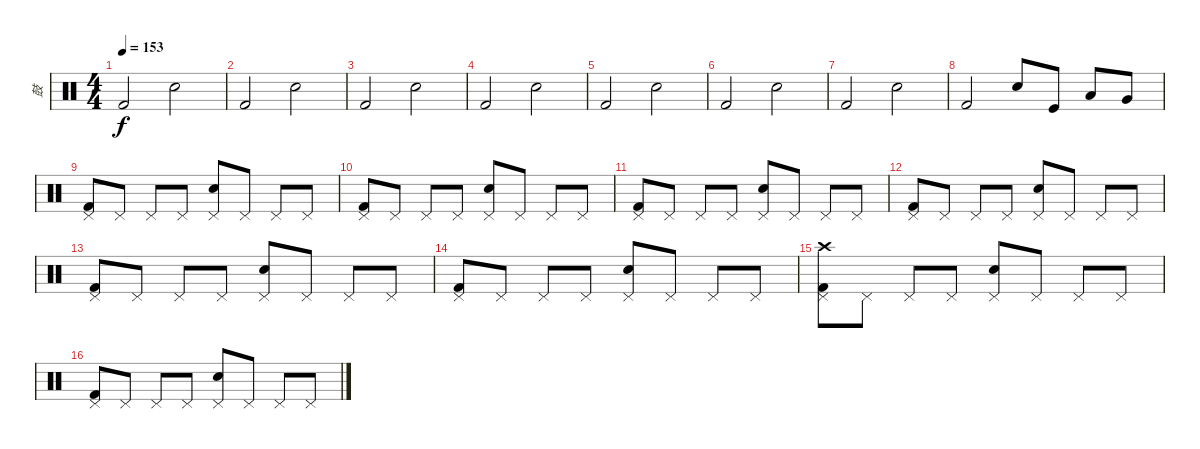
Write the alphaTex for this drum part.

\track ("鼓" "鼓") {instrument percussion}
\staff {score}
\articulation defaults
\ts (4 4)
\tempo 153
\clef neutral
\ks c "Kick (hit) 2".2{dy f} "Electric Snare (hit)".2
|
"Kick (hit) 2".2 "Electric Snare (hit)".2 |
"Kick (hit) 2".2 "Electric Snare (hit)".2 |
"Kick (hit) 2".2 "Electric Snare (hit)".2 |
"Kick (hit) 2".2 "Electric Snare (hit)".2 |
"Kick (hit) 2".2 "Electric Snare (hit)".2 |
"Kick (hit) 2".2 "Electric Snare (hit)".2 |
"Kick (hit) 2".2 "Snare (hit) 2".8 "Kick (hit)".8 "Low Tom (hit)".8 "Very Low Tom (hit)".8 |
("Pedal Hi-Hat (hit)" "Kick (hit) 2").8 "Pedal Hi-Hat (hit)".8 "Pedal Hi-Hat (hit)".8 "Pedal Hi-Hat (hit)".8 ("Pedal Hi-Hat (hit)" "Electric Snare (hit)").8 "Pedal Hi-Hat (hit)".8 "Pedal Hi-Hat (hit)".8 "Pedal Hi-Hat (hit)".8 |
("Pedal Hi-Hat (hit)" "Kick (hit) 2").8 "Pedal Hi-Hat (hit)".8 "Pedal Hi-Hat (hit)".8 "Pedal Hi-Hat (hit)".8 ("Pedal Hi-Hat (hit)" "Electric Snare (hit)").8 "Pedal Hi-Hat (hit)".8 "Pedal Hi-Hat (hit)".8 "Pedal Hi-Hat (hit)".8 |
("Pedal Hi-Hat (hit)" "Kick (hit) 2").8 "Pedal Hi-Hat (hit)".8 "Pedal Hi-Hat (hit)".8 "Pedal Hi-Hat (hit)".8 ("Pedal Hi-Hat (hit)" "Electric Snare (hit)").8 "Pedal Hi-Hat (hit)".8 "Pedal Hi-Hat (hit)".8 "Pedal Hi-Hat (hit)".8 |
("Pedal Hi-Hat (hit)" "Kick (hit) 2").8 "Pedal Hi-Hat (hit)".8 "Pedal Hi-Hat (hit)".8 "Pedal Hi-Hat (hit)".8 ("Pedal Hi-Hat (hit)" "Electric Snare (hit)").8 "Pedal Hi-Hat (hit)".8 "Pedal Hi-Hat (hit)".8 "Pedal Hi-Hat (hit)".8 |
("Pedal Hi-Hat (hit)" "Kick (hit) 2").8 "Pedal Hi-Hat (hit)".8 "Pedal Hi-Hat (hit)".8 "Pedal Hi-Hat (hit)".8 ("Pedal Hi-Hat (hit)" "Electric Snare (hit)").8 "Pedal Hi-Hat (hit)".8 "Pedal Hi-Hat (hit)".8 "Pedal Hi-Hat (hit)".8 |
("Pedal Hi-Hat (hit)" "Kick (hit) 2").8 "Pedal Hi-Hat (hit)".8 "Pedal Hi-Hat (hit)".8 "Pedal Hi-Hat (hit)".8 ("Pedal Hi-Hat (hit)" "Electric Snare (hit)").8 "Pedal Hi-Hat (hit)".8 "Pedal Hi-Hat (hit)".8 "Pedal Hi-Hat (hit)".8 |
("Pedal Hi-Hat (hit)" "Crash high (hit)" "Kick (hit) 2").8 "Pedal Hi-Hat (hit)".8 "Pedal Hi-Hat (hit)".8 "Pedal Hi-Hat (hit)".8 ("Pedal Hi-Hat (hit)" "Electric Snare (hit)").8 "Pedal Hi-Hat (hit)".8 "Pedal Hi-Hat (hit)".8 "Pedal Hi-Hat (hit)".8 |
("Pedal Hi-Hat (hit)" "Kick (hit) 2").8 "Pedal Hi-Hat (hit)".8 "Pedal Hi-Hat (hit)".8 "Pedal Hi-Hat (hit)".8 ("Pedal Hi-Hat (hit)" "Electric Snare (hit)").8 "Pedal Hi-Hat (hit)".8 "Pedal Hi-Hat (hit)".8 "Pedal Hi-Hat (hit)".8
